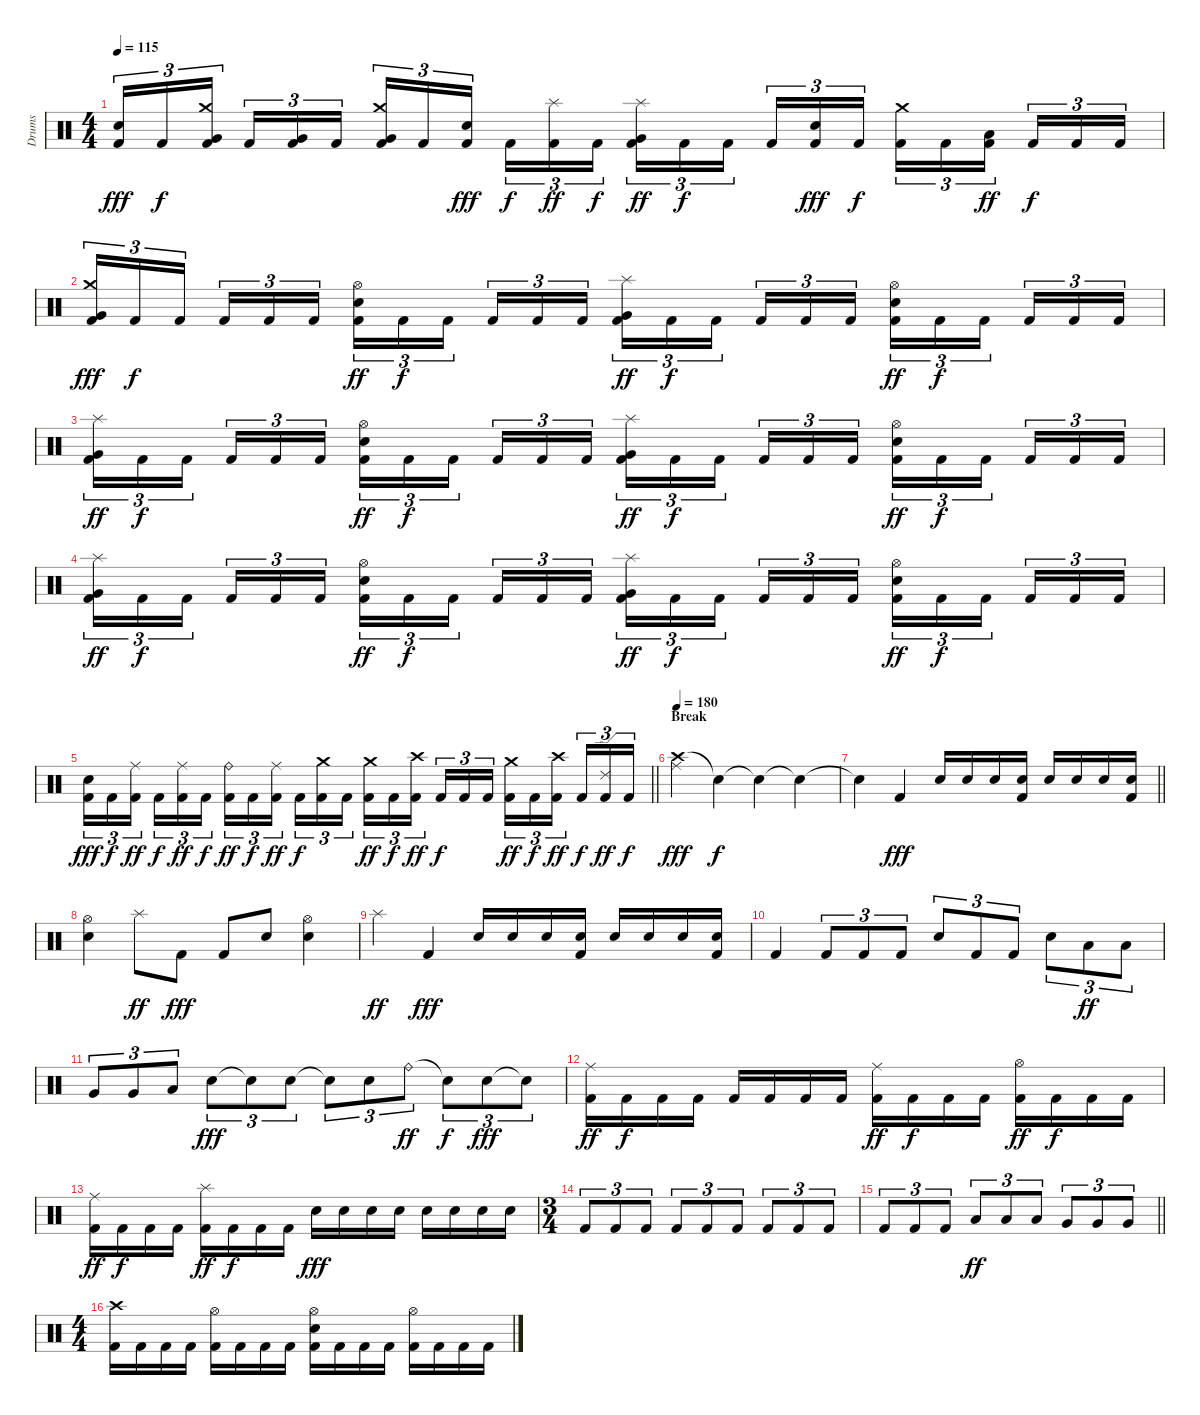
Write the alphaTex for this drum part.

\track ("Drums" "Drums") {instrument percussion}
\staff {score}
\articulation defaults
\ts (4 4)
\tempo 115
\clef neutral
\ks c
("Snare (hit) 2" "Kick (hit) 2").16{tu (3 2) dy fff} "Kick (hit) 2".16{tu (3 2) dy f} ("Crash medium (hit)" "Very Low Tom (hit)" "Kick (hit) 2").16{tu (3 2) beam splitsecondary} "Kick (hit) 2".16{tu (3 2)} ("Very Low Tom (hit)" "Kick (hit) 2").16{tu (3 2)} "Kick (hit) 2".16{tu (3 2)} ("Crash medium (hit)" "Very Low Tom (hit)" "Kick (hit) 2").16{tu (3 2)} "Kick (hit) 2".16{tu (3 2)} ("Snare (hit) 2" "Kick (hit) 2").16{tu (3 2) dy fff beam splitsecondary} "Kick (hit) 2".16{tu (3 2) dy f} ("Splash (hit)" "Kick (hit) 2").16{tu (3 2) dy ff} "Kick (hit) 2".16{tu (3 2) dy f} ("Splash (hit)" "Very Low Tom (hit)" "Kick (hit) 2").16{tu (3 2) dy ff} "Kick (hit) 2".16{tu (3 2) dy f} "Kick (hit) 2".16{tu (3 2) beam splitsecondary} "Kick (hit) 2".16{tu (3 2)} ("Snare (hit) 2" "Kick (hit) 2").16{tu (3 2) dy fff} "Kick (hit) 2".16{tu (3 2) dy f} ("Crash medium (hit)" "Kick (hit) 2").16{tu (3 2)} "Kick (hit) 2".16{tu (3 2)} ("Low Tom (hit)" "Kick (hit) 2").16{tu (3 2) dy ff beam splitsecondary} "Kick (hit) 2".16{tu (3 2) dy f} "Kick (hit) 2".16{tu (3 2)} "Kick (hit) 2".16{tu (3 2)} |
("Crash medium (hit)" "Very Low Tom (hit)" "Kick (hit) 2").16{tu (3 2) dy fff} "Kick (hit) 2".16{tu (3 2) dy f} "Kick (hit) 2".16{tu (3 2) beam splitsecondary} "Kick (hit) 2".16{tu (3 2)} "Kick (hit) 2".16{tu (3 2)} "Kick (hit) 2".16{tu (3 2)} ("Hi-Hat (open)" "Snare (hit) 2" "Kick (hit) 2").16{tu (3 2) dy ff} "Kick (hit) 2".16{tu (3 2) dy f} "Kick (hit) 2".16{tu (3 2) beam splitsecondary} "Kick (hit) 2".16{tu (3 2)} "Kick (hit) 2".16{tu (3 2)} "Kick (hit) 2".16{tu (3 2)} ("Splash (hit)" "Very Low Tom (hit)" "Kick (hit) 2").16{tu (3 2) dy ff} "Kick (hit) 2".16{tu (3 2) dy f} "Kick (hit) 2".16{tu (3 2) beam splitsecondary} "Kick (hit) 2".16{tu (3 2)} "Kick (hit) 2".16{tu (3 2)} "Kick (hit) 2".16{tu (3 2)} ("Hi-Hat (open)" "Snare (hit) 2" "Kick (hit) 2").16{tu (3 2) dy ff} "Kick (hit) 2".16{tu (3 2) dy f} "Kick (hit) 2".16{tu (3 2) beam splitsecondary} "Kick (hit) 2".16{tu (3 2)} "Kick (hit) 2".16{tu (3 2)} "Kick (hit) 2".16{tu (3 2)} |
("Splash (hit)" "Very Low Tom (hit)" "Kick (hit) 2").16{tu (3 2) dy ff} "Kick (hit) 2".16{tu (3 2) dy f} "Kick (hit) 2".16{tu (3 2) beam splitsecondary} "Kick (hit) 2".16{tu (3 2)} "Kick (hit) 2".16{tu (3 2)} "Kick (hit) 2".16{tu (3 2)} ("Hi-Hat (open)" "Snare (hit) 2" "Kick (hit) 2").16{tu (3 2) dy ff} "Kick (hit) 2".16{tu (3 2) dy f} "Kick (hit) 2".16{tu (3 2) beam splitsecondary} "Kick (hit) 2".16{tu (3 2)} "Kick (hit) 2".16{tu (3 2)} "Kick (hit) 2".16{tu (3 2)} ("Splash (hit)" "Very Low Tom (hit)" "Kick (hit) 2").16{tu (3 2) dy ff} "Kick (hit) 2".16{tu (3 2) dy f} "Kick (hit) 2".16{tu (3 2) beam splitsecondary} "Kick (hit) 2".16{tu (3 2)} "Kick (hit) 2".16{tu (3 2)} "Kick (hit) 2".16{tu (3 2)} ("Hi-Hat (open)" "Snare (hit) 2" "Kick (hit) 2").16{tu (3 2) dy ff} "Kick (hit) 2".16{tu (3 2) dy f} "Kick (hit) 2".16{tu (3 2) beam splitsecondary} "Kick (hit) 2".16{tu (3 2)} "Kick (hit) 2".16{tu (3 2)} "Kick (hit) 2".16{tu (3 2)} |
("Splash (hit)" "Very Low Tom (hit)" "Kick (hit) 2").16{tu (3 2) dy ff} "Kick (hit) 2".16{tu (3 2) dy f} "Kick (hit) 2".16{tu (3 2) beam splitsecondary} "Kick (hit) 2".16{tu (3 2)} "Kick (hit) 2".16{tu (3 2)} "Kick (hit) 2".16{tu (3 2)} ("Hi-Hat (open)" "Snare (hit) 2" "Kick (hit) 2").16{tu (3 2) dy ff} "Kick (hit) 2".16{tu (3 2) dy f} "Kick (hit) 2".16{tu (3 2) beam splitsecondary} "Kick (hit) 2".16{tu (3 2)} "Kick (hit) 2".16{tu (3 2)} "Kick (hit) 2".16{tu (3 2)} ("Splash (hit)" "Very Low Tom (hit)" "Kick (hit) 2").16{tu (3 2) dy ff} "Kick (hit) 2".16{tu (3 2) dy f} "Kick (hit) 2".16{tu (3 2) beam splitsecondary} "Kick (hit) 2".16{tu (3 2)} "Kick (hit) 2".16{tu (3 2)} "Kick (hit) 2".16{tu (3 2)} ("Hi-Hat (open)" "Snare (hit) 2" "Kick (hit) 2").16{tu (3 2) dy ff} "Kick (hit) 2".16{tu (3 2) dy f} "Kick (hit) 2".16{tu (3 2) beam splitsecondary} "Kick (hit) 2".16{tu (3 2)} "Kick (hit) 2".16{tu (3 2)} "Kick (hit) 2".16{tu (3 2)} |
\barLineRight lightlight
("Snare (hit) 2" "Kick (hit) 2").16{tu (3 2) dy fff} "Kick (hit) 2".16{tu (3 2) dy f} ("Ride (middle)" "Kick (hit) 2").16{tu (3 2) dy ff beam splitsecondary} "Kick (hit) 2".16{tu (3 2) dy f} ("Ride (middle)" "Kick (hit) 2").16{tu (3 2) dy ff} "Kick (hit) 2".16{tu (3 2) dy f} ("Ride (bell)" "Kick (hit) 2").16{tu (3 2) dy ff} "Kick (hit) 2".16{tu (3 2) dy f} ("Ride (middle)" "Kick (hit) 2").16{tu (3 2) dy ff beam splitsecondary} "Kick (hit) 2".16{tu (3 2) dy f} ("Crash medium (hit)" "Kick (hit) 2").16{tu (3 2)} "Kick (hit) 2".16{tu (3 2)} ("Crash medium (hit)" "Kick (hit) 2").16{tu (3 2) dy ff} "Kick (hit) 2".16{tu (3 2) dy f} ("Crash high (hit)" "Kick (hit) 2").16{tu (3 2) dy ff beam splitsecondary} "Kick (hit) 2".16{tu (3 2) dy f} "Kick (hit) 2".16{tu (3 2)} "Kick (hit) 2".16{tu (3 2)} ("Crash medium (hit)" "Kick (hit) 2").16{tu (3 2) dy ff} "Kick (hit) 2".16{tu (3 2) dy f} ("Crash high (hit)" "Kick (hit) 2").16{tu (3 2) dy ff beam splitsecondary} "Kick (hit) 2".16{tu (3 2) dy f} ("Ride (edge) 2" "Kick (hit) 2").16{tu (3 2) dy ff} "Kick (hit) 2".16{tu (3 2) dy f} |
\section ("" "Break")
\tempo 180
("Crash high (hit)" "Ride (middle)").4{dy fff} "Snare (hit)"{t}.4{dy f} "Snare (hit)"{t}.4 "Snare (hit)"{t}.4 |
\barLineRight lightlight "Snare (hit)"{t}.4 "Kick (hit) 2".4{dy fff} "Snare (hit) 2".16 "Snare (hit) 2".16 "Snare (hit) 2".16
("Snare (hit) 2" "Kick (hit) 2").16 "Snare (hit) 2".16 "Snare (hit) 2".16 "Snare (hit) 2".16 ("Snare (hit) 2" "Kick (hit) 2").16 |
("Hi-Hat (open)" "Snare (hit) 2").4 "Splash (hit)".8{dy ff} "Kick (hit) 2".8{dy fff} "Kick (hit) 2".8 "Snare (hit) 2".8 ("Hi-Hat (open)" "Snare (hit) 2").4 |
"Splash (hit)".4{dy ff} "Kick (hit) 2".4{dy fff} "Snare (hit) 2".16 "Snare (hit) 2".16 "Snare (hit) 2".16 ("Snare (hit) 2" "Kick (hit) 2").16 "Snare (hit) 2".16 "Snare (hit) 2".16 "Snare (hit) 2".16 ("Snare (hit) 2" "Kick (hit) 2").16 |
"Kick (hit) 2".4 "Kick (hit) 2".8{tu (3 2)} "Kick (hit) 2".8{tu (3 2)} "Kick (hit) 2".8{tu (3 2)} "Snare (hit) 2".8{tu (3 2)} "Kick (hit) 2".8{tu (3 2)} "Kick (hit) 2".8{tu (3 2)} "Snare (hit) 2".8{tu (3 2)} "Low Tom (hit)".8{tu (3 2) dy ff} "Low Tom (hit)".8{tu (3 2)} |
"Very Low Tom (hit)".8{tu (3 2)} "Very Low Tom (hit)".8{tu (3 2)} "Low Floor Tom (hit)".8{tu (3 2)} "Snare (hit) 2".8{tu (3 2) dy fff} "Snare (hit)"{t}.8{tu (3 2)} "Snare (hit) 2".8{tu (3 2)} "Snare (hit)"{t}.8{tu (3 2)} "Snare (hit) 2".8{tu (3 2)} "Ride (bell)".8{tu (3 2) dy ff} "Snare (hit)"{t}.8{tu (3 2) dy f} "Snare (hit) 2".8{tu (3 2) dy fff} "Snare (hit)"{t}.8{tu (3 2)} |
("Ride (middle)" "Kick (hit) 2").16{dy ff} "Kick (hit) 2".16{dy f} "Kick (hit) 2".16 "Kick (hit) 2".16 "Kick (hit) 2".16 "Kick (hit) 2".16 "Kick (hit) 2".16 "Kick (hit) 2".16 ("Ride (middle)" "Kick (hit) 2").16{dy ff} "Kick (hit) 2".16{dy f} "Kick (hit) 2".16 "Kick (hit) 2".16 ("Hi-Hat (open)" "Kick (hit) 2").16{dy ff} "Kick (hit) 2".16{dy f} "Kick (hit) 2".16 "Kick (hit) 2".16 |
("Ride (middle)" "Kick (hit) 2").16{dy ff} "Kick (hit) 2".16{dy f} "Kick (hit) 2".16 "Kick (hit) 2".16 ("Splash (hit)" "Kick (hit) 2").16{dy ff} "Kick (hit) 2".16{dy f} "Kick (hit) 2".16 "Kick (hit) 2".16 "Snare (hit) 2".16{dy fff} "Snare (hit) 2".16 "Snare (hit) 2".16 "Snare (hit) 2".16 "Snare (hit) 2".16 "Snare (hit) 2".16 "Snare (hit) 2".16 "Snare (hit) 2".16 |
\ts (3 4)
"Kick (hit) 2".8{tu (3 2)} "Kick (hit) 2".8{tu (3 2)} "Kick (hit) 2".8{tu (3 2)} "Kick (hit) 2".8{tu (3 2)} "Kick (hit) 2".8{tu (3 2)} "Kick (hit) 2".8{tu (3 2)} "Kick (hit) 2".8{tu (3 2)} "Kick (hit) 2".8{tu (3 2)} "Kick (hit) 2".8{tu (3 2)} |
\barLineRight lightlight "Kick (hit) 2".8{tu (3 2)} "Kick (hit) 2".8{tu (3 2)} "Kick (hit) 2".8{tu (3 2)} "Low Floor Tom (hit)".8{tu (3 2) dy ff} "Low Floor Tom (hit)".8{tu (3 2)} "Low Floor Tom (hit)".8{tu (3 2)} "Very Low Tom (hit)".8{tu (3 2)} "Very Low Tom (hit)".8{tu (3 2)} "Very Low Tom (hit)".8{tu (3 2)}
|
\ts (4 4)
("Crash high (hit)" "Kick (hit) 2").16 "Kick (hit) 2".16 "Kick (hit) 2".16 "Kick (hit) 2".16 ("Hi-Hat (open)" "Kick (hit) 2").16 "Kick (hit) 2".16 "Kick (hit) 2".16 "Kick (hit) 2".16 ("Hi-Hat (open)" "Snare (hit) 2" "Kick (hit) 2").16 "Kick (hit) 2".16 "Kick (hit) 2".16 "Kick (hit) 2".16 ("Hi-Hat (open)" "Kick (hit) 2").16 "Kick (hit) 2".16 "Kick (hit) 2".16 "Kick (hit) 2".16
